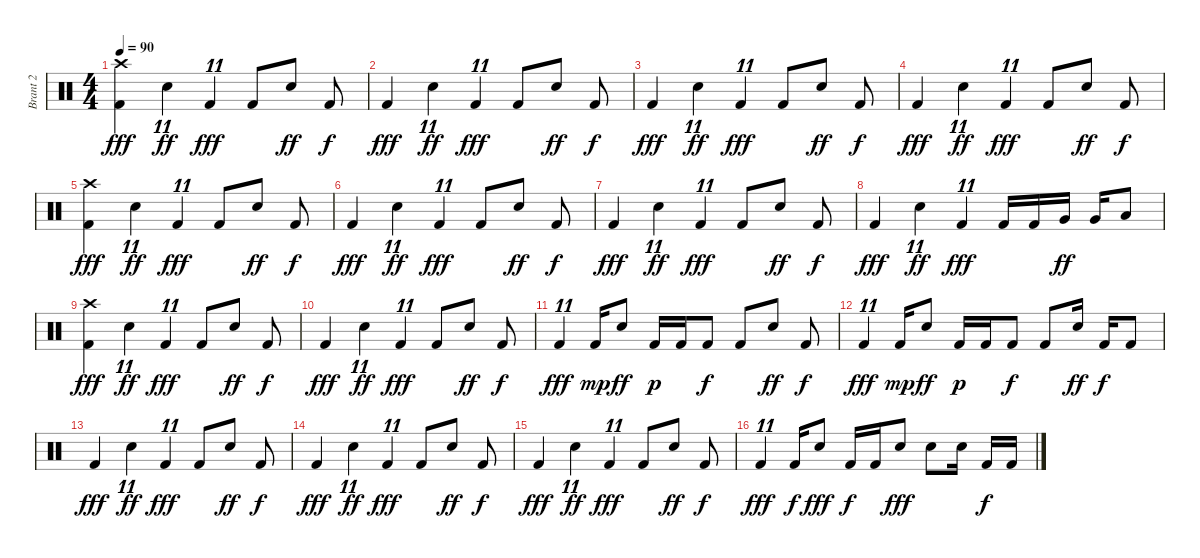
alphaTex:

\track ("Brant 2" "Brant 2") {instrument percussion}
\staff {score}
\articulation defaults
\ts (4 4)
\tempo 90
\clef neutral
\ks c
("Crash high (hit)" "Kick (hit) 2").4{dy fff} "Electric Snare (hit)".4{tu (11 8) dy ff} "Kick (hit) 2".4{tu (11 8) dy fff} "Kick (hit) 2".8 "Electric Snare (hit)".8{dy ff} "Kick (hit) 2".8{dy f} |
"Kick (hit) 2".4{dy fff} "Electric Snare (hit)".4{tu (11 8) dy ff} "Kick (hit) 2".4{tu (11 8) dy fff} "Kick (hit) 2".8 "Electric Snare (hit)".8{dy ff} "Kick (hit) 2".8{dy f} |
"Kick (hit) 2".4{dy fff} "Electric Snare (hit)".4{tu (11 8) dy ff} "Kick (hit) 2".4{tu (11 8) dy fff} "Kick (hit) 2".8 "Electric Snare (hit)".8{dy ff} "Kick (hit) 2".8{dy f} |
"Kick (hit) 2".4{dy fff} "Electric Snare (hit)".4{tu (11 8) dy ff} "Kick (hit) 2".4{tu (11 8) dy fff} "Kick (hit) 2".8 "Electric Snare (hit)".8{dy ff} "Kick (hit) 2".8{dy f} |
("Crash high (hit)" "Kick (hit) 2").4{dy fff} "Electric Snare (hit)".4{tu (11 8) dy ff} "Kick (hit) 2".4{tu (11 8) dy fff} "Kick (hit) 2".8 "Electric Snare (hit)".8{dy ff} "Kick (hit) 2".8{dy f} |
"Kick (hit) 2".4{dy fff} "Electric Snare (hit)".4{tu (11 8) dy ff} "Kick (hit) 2".4{tu (11 8) dy fff} "Kick (hit) 2".8 "Electric Snare (hit)".8{dy ff} "Kick (hit) 2".8{dy f} |
"Kick (hit) 2".4{dy fff} "Electric Snare (hit)".4{tu (11 8) dy ff} "Kick (hit) 2".4{tu (11 8) dy fff} "Kick (hit) 2".8 "Electric Snare (hit)".8{dy ff} "Kick (hit) 2".8{dy f} |
"Kick (hit) 2".4{dy fff} "Electric Snare (hit)".4{tu (11 8) dy ff} "Kick (hit) 2".4{tu (11 8) dy fff} "Kick (hit) 2".16 "Kick (hit) 2".16 "Very Low Tom (hit)".16{dy ff} "Very Low Tom (hit)".16 "Low Floor Tom (hit)".8 |
("Crash high (hit)" "Kick (hit) 2").4{dy fff} "Electric Snare (hit)".4{tu (11 8) dy ff} "Kick (hit) 2".4{tu (11 8) dy fff} "Kick (hit) 2".8 "Electric Snare (hit)".8{dy ff} "Kick (hit) 2".8{dy f} |
"Kick (hit) 2".4{dy fff} "Electric Snare (hit)".4{tu (11 8) dy ff} "Kick (hit) 2".4{tu (11 8) dy fff} "Kick (hit) 2".8 "Electric Snare (hit)".8{dy ff} "Kick (hit) 2".8{dy f} |
"Kick (hit) 2".4{tu (11 8) dy fff} "Kick (hit) 2".16{dy mp} "Electric Snare (hit)".8{dy ff} "Kick (hit) 2".16{dy p} "Kick (hit) 2".16 "Kick (hit) 2".8{dy f} "Kick (hit) 2".8 "Electric Snare (hit)".8{dy ff} "Kick (hit) 2".8{dy f} |
"Kick (hit) 2".4{tu (11 8) dy fff} "Kick (hit) 2".16{dy mp} "Electric Snare (hit)".8{dy ff} "Kick (hit) 2".16{dy p} "Kick (hit) 2".16 "Kick (hit) 2".8{dy f} "Kick (hit) 2".8 "Electric Snare (hit)".16{dy ff} "Kick (hit) 2".16{dy f} "Kick (hit) 2".8 |
"Kick (hit) 2".4{dy fff} "Electric Snare (hit)".4{tu (11 8) dy ff} "Kick (hit) 2".4{tu (11 8) dy fff} "Kick (hit) 2".8 "Electric Snare (hit)".8{dy ff} "Kick (hit) 2".8{dy f} |
"Kick (hit) 2".4{dy fff} "Electric Snare (hit)".4{tu (11 8) dy ff} "Kick (hit) 2".4{tu (11 8) dy fff} "Kick (hit) 2".8 "Electric Snare (hit)".8{dy ff} "Kick (hit) 2".8{dy f} |
"Kick (hit) 2".4{dy fff} "Electric Snare (hit)".4{tu (11 8) dy ff} "Kick (hit) 2".4{tu (11 8) dy fff} "Kick (hit) 2".8 "Electric Snare (hit)".8{dy ff} "Kick (hit) 2".8{dy f} |
"Kick (hit) 2".4{tu (11 8) dy fff} "Kick (hit) 2".16{dy f} "Electric Snare (hit)".8{dy fff} "Kick (hit) 2".16{dy f} "Kick (hit) 2".16 "Electric Snare (hit)".8{dy fff} "Electric Snare (hit)".8 "Electric Snare (hit)".16 "Kick (hit) 2".16{dy f} "Kick (hit) 2".16
